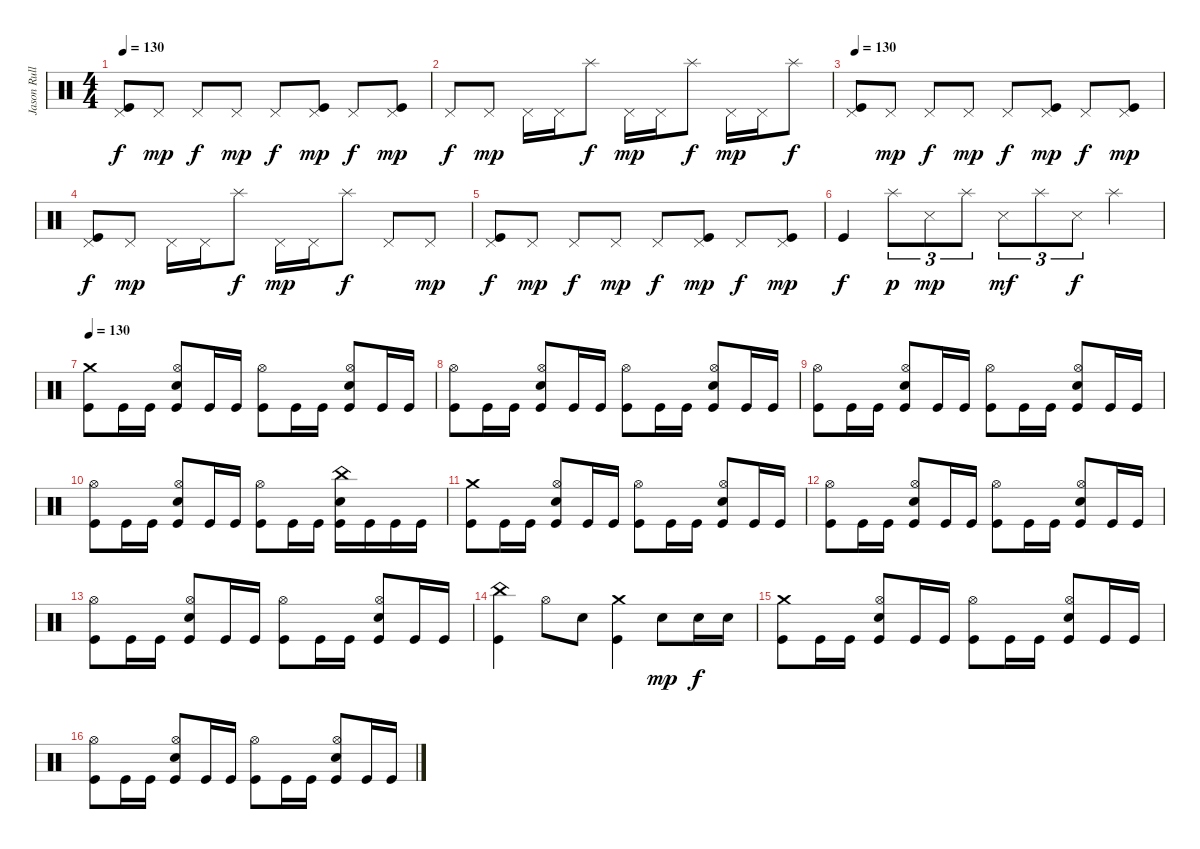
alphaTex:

\track ("Jason Rullo - Batterie" "Jason Rull") {instrument percussion}
\staff {score}
\articulation defaults
\ts (4 4)
\tempo 130
\clef neutral
\ks c
("Pedal Hi-Hat (hit)" "Kick (hit)").8{dy f} "Pedal Hi-Hat (hit)".8{dy mp} "Pedal Hi-Hat (hit)".8{dy f} "Pedal Hi-Hat (hit)".8{dy mp} "Pedal Hi-Hat (hit)".8{dy f} ("Pedal Hi-Hat (hit)" "Kick (hit)").8{dy mp} "Pedal Hi-Hat (hit)".8{dy f} ("Pedal Hi-Hat (hit)" "Kick (hit)").8{dy mp} |
"Pedal Hi-Hat (hit)".8{dy f} "Pedal Hi-Hat (hit)".8{dy mp} "Pedal Hi-Hat (hit)".16 "Pedal Hi-Hat (hit)".16 "Splash (hit)".8{dy f} "Pedal Hi-Hat (hit)".16{dy mp} "Pedal Hi-Hat (hit)".16 "Splash (hit)".8{dy f} "Pedal Hi-Hat (hit)".16{dy mp} "Pedal Hi-Hat (hit)".16 "Splash (hit)".8{dy f} |
\tempo 130
("Pedal Hi-Hat (hit)" "Kick (hit)").8 "Pedal Hi-Hat (hit)".8{dy mp} "Pedal Hi-Hat (hit)".8{dy f} "Pedal Hi-Hat (hit)".8{dy mp} "Pedal Hi-Hat (hit)".8{dy f} ("Pedal Hi-Hat (hit)" "Kick (hit)").8{dy mp} "Pedal Hi-Hat (hit)".8{dy f} ("Pedal Hi-Hat (hit)" "Kick (hit)").8{dy mp} |
("Pedal Hi-Hat (hit)" "Kick (hit)").8{dy f} "Pedal Hi-Hat (hit)".8{dy mp} "Pedal Hi-Hat (hit)".16 "Pedal Hi-Hat (hit)".16 "Splash (hit)".8{dy f} "Pedal Hi-Hat (hit)".16{dy mp} "Pedal Hi-Hat (hit)".16 "Splash (hit)".8{dy f} "Pedal Hi-Hat (hit)".8 "Pedal Hi-Hat (hit)".8{dy mp} |
("Pedal Hi-Hat (hit)" "Kick (hit)").8{dy f} "Pedal Hi-Hat (hit)".8{dy mp} "Pedal Hi-Hat (hit)".8{dy f} "Pedal Hi-Hat (hit)".8{dy mp} "Pedal Hi-Hat (hit)".8{dy f} ("Pedal Hi-Hat (hit)" "Kick (hit)").8{dy mp} "Pedal Hi-Hat (hit)".8{dy f} ("Pedal Hi-Hat (hit)" "Kick (hit)").8{dy mp} |
"Kick (hit)".4{dy f} "Splash (hit)".8{tu (3 2) dy p} "Metronome (hit)".8{tu (3 2) dy mp} "Splash (hit)".8{tu (3 2)} "Metronome (hit)".8{tu (3 2) dy mf} "Splash (hit)".8{tu (3 2)} "Metronome (hit)".8{tu (3 2) dy f} "Splash (hit)".4 |
\tempo 130
("Crash medium (hit)" "Kick (hit)").8 "Kick (hit)".16 "Kick (hit)".16 ("Hi-Hat (open)" "Snare (hit) 2" "Kick (hit)").8 "Kick (hit)".16 "Kick (hit)".16 ("Hi-Hat (open)" "Kick (hit)").8 "Kick (hit)".16 "Kick (hit)".16 ("Hi-Hat (open)" "Snare (hit) 2" "Kick (hit)").8 "Kick (hit)".16 "Kick (hit)".16 |
("Hi-Hat (open)" "Kick (hit)").8 "Kick (hit)".16 "Kick (hit)".16 ("Hi-Hat (open)" "Snare (hit) 2" "Kick (hit)").8 "Kick (hit)".16 "Kick (hit)".16 ("Hi-Hat (open)" "Kick (hit)").8 "Kick (hit)".16 "Kick (hit)".16 ("Hi-Hat (open)" "Snare (hit) 2" "Kick (hit)").8 "Kick (hit)".16 "Kick (hit)".16 |
("Hi-Hat (open)" "Kick (hit)").8 "Kick (hit)".16 "Kick (hit)".16 ("Hi-Hat (open)" "Snare (hit) 2" "Kick (hit)").8 "Kick (hit)".16 "Kick (hit)".16 ("Hi-Hat (open)" "Kick (hit)").8 "Kick (hit)".16 "Kick (hit)".16 ("Hi-Hat (open)" "Snare (hit) 2" "Kick (hit)").8 "Kick (hit)".16 "Kick (hit)".16 |
("Hi-Hat (open)" "Kick (hit)").8 "Kick (hit)".16 "Kick (hit)".16 ("Hi-Hat (open)" "Snare (hit) 2" "Kick (hit)").8 "Kick (hit)".16 "Kick (hit)".16 ("Hi-Hat (open)" "Kick (hit)").8 "Kick (hit)".16 "Kick (hit)".16 ("China (hit)" "Snare (hit) 2" "Kick (hit)").16 "Kick (hit)".16 "Kick (hit)".16 "Kick (hit)".16 |
("Crash medium (hit)" "Kick (hit)").8 "Kick (hit)".16 "Kick (hit)".16 ("Hi-Hat (open)" "Snare (hit) 2" "Kick (hit)").8 "Kick (hit)".16 "Kick (hit)".16 ("Hi-Hat (open)" "Kick (hit)").8 "Kick (hit)".16 "Kick (hit)".16 ("Hi-Hat (open)" "Snare (hit) 2" "Kick (hit)").8 "Kick (hit)".16 "Kick (hit)".16 |
("Hi-Hat (open)" "Kick (hit)").8 "Kick (hit)".16 "Kick (hit)".16 ("Hi-Hat (open)" "Snare (hit) 2" "Kick (hit)").8 "Kick (hit)".16 "Kick (hit)".16 ("Hi-Hat (open)" "Kick (hit)").8 "Kick (hit)".16 "Kick (hit)".16 ("Hi-Hat (open)" "Snare (hit) 2" "Kick (hit)").8 "Kick (hit)".16 "Kick (hit)".16 |
("Hi-Hat (open)" "Kick (hit)").8 "Kick (hit)".16 "Kick (hit)".16 ("Hi-Hat (open)" "Snare (hit) 2" "Kick (hit)").8 "Kick (hit)".16 "Kick (hit)".16 ("Hi-Hat (open)" "Kick (hit)").8 "Kick (hit)".16 "Kick (hit)".16 ("Hi-Hat (open)" "Snare (hit) 2" "Kick (hit)").8 "Kick (hit)".16 "Kick (hit)".16 |
("China (hit)" "Kick (hit)").4 "Hi-Hat (open)".8 "Snare (hit) 2".8 ("Crash medium (hit)" "Kick (hit)").4 "Snare (hit) 2".8{dy mp} "Snare (hit) 2".16{dy f} "Snare (hit) 2".16 |
("Crash medium (hit)" "Kick (hit)").8 "Kick (hit)".16 "Kick (hit)".16 ("Hi-Hat (open)" "Snare (hit) 2" "Kick (hit)").8 "Kick (hit)".16 "Kick (hit)".16 ("Hi-Hat (open)" "Kick (hit)").8 "Kick (hit)".16 "Kick (hit)".16 ("Hi-Hat (open)" "Snare (hit) 2" "Kick (hit)").8 "Kick (hit)".16 "Kick (hit)".16 |
("Hi-Hat (open)" "Kick (hit)").8 "Kick (hit)".16 "Kick (hit)".16 ("Hi-Hat (open)" "Snare (hit) 2" "Kick (hit)").8 "Kick (hit)".16 "Kick (hit)".16 ("Hi-Hat (open)" "Kick (hit)").8 "Kick (hit)".16 "Kick (hit)".16 ("Hi-Hat (open)" "Snare (hit) 2" "Kick (hit)").8 "Kick (hit)".16 "Kick (hit)".16
